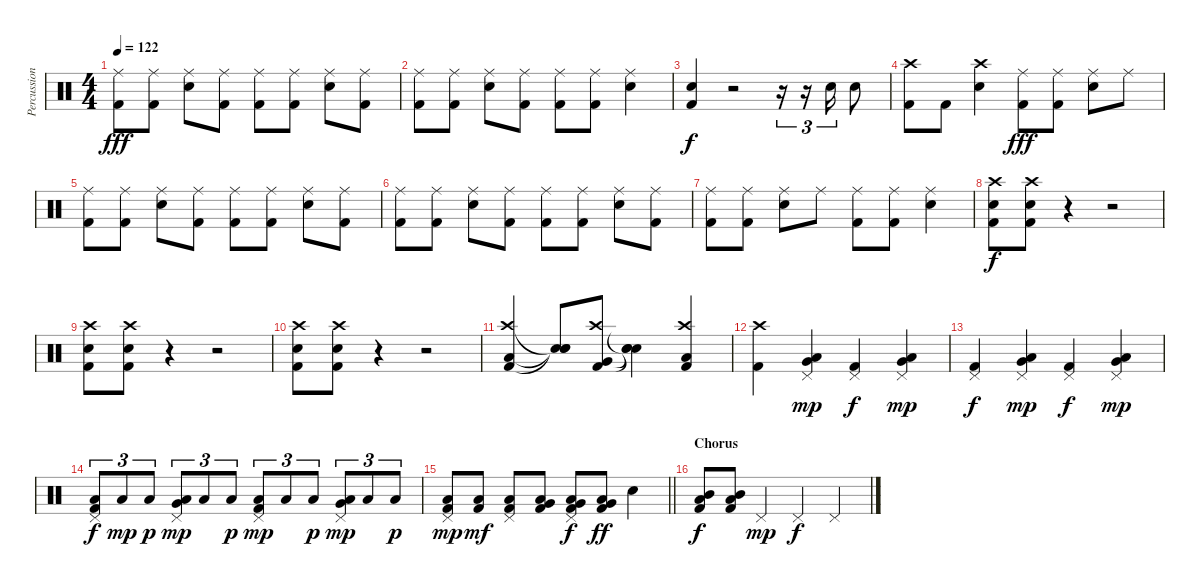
\track ("Percussion (Peter)" "Percussion") {instrument percussion}
\staff {score}
\articulation defaults
\ts (4 4)
\tempo 122
\clef neutral
\ks c
("Ride (middle)" "Kick (hit) 2").8{dy fff} ("Ride (middle)" "Kick (hit) 2").8 ("Ride (middle)" "Snare (hit) 2").8 ("Ride (middle)" "Kick (hit) 2").8 ("Ride (middle)" "Kick (hit) 2").8 ("Ride (middle)" "Kick (hit) 2").8 ("Ride (middle)" "Snare (hit) 2").8 ("Ride (middle)" "Kick (hit) 2").8 |
("Ride (middle)" "Kick (hit) 2").8 ("Ride (middle)" "Kick (hit) 2").8 ("Ride (middle)" "Snare (hit) 2").8 ("Ride (middle)" "Kick (hit) 2").8 ("Ride (middle)" "Kick (hit) 2").8 ("Ride (middle)" "Kick (hit) 2").8 ("Ride (middle)" "Snare (hit) 2").4 |
("Snare (hit) 2" "Kick (hit) 2").4{dy f} r.2 r.16{tu (3 2)} r.16{tu (3 2)} "Snare (hit) 2".16{tu (3 2)} "Snare (hit) 2".8 |
("Crash high (hit)" "Kick (hit) 2").8 "Kick (hit) 2".8 ("Crash high (hit)" "Snare (hit) 2").4 ("Ride (middle)" "Kick (hit) 2").8{dy fff} ("Ride (middle)" "Kick (hit) 2").8 ("Ride (middle)" "Snare (hit) 2").8 "Ride (middle)".8 |
("Ride (middle)" "Kick (hit) 2").8 ("Ride (middle)" "Kick (hit) 2").8 ("Ride (middle)" "Snare (hit) 2").8 ("Ride (middle)" "Kick (hit) 2").8 ("Ride (middle)" "Kick (hit) 2").8 ("Ride (middle)" "Kick (hit) 2").8 ("Ride (middle)" "Snare (hit) 2").8 ("Ride (middle)" "Kick (hit) 2").8 |
("Ride (middle)" "Kick (hit) 2").8 ("Ride (middle)" "Kick (hit) 2").8 ("Ride (middle)" "Snare (hit) 2").8 ("Ride (middle)" "Kick (hit) 2").8 ("Ride (middle)" "Kick (hit) 2").8 ("Ride (middle)" "Kick (hit) 2").8 ("Ride (middle)" "Snare (hit) 2").8 ("Ride (middle)" "Kick (hit) 2").8 |
("Ride (middle)" "Kick (hit) 2").8 ("Ride (middle)" "Kick (hit) 2").8 ("Ride (middle)" "Snare (hit) 2").8 "Ride (middle)".8 ("Ride (middle)" "Kick (hit) 2").8 ("Ride (middle)" "Kick (hit) 2").8 ("Ride (middle)" "Snare (hit) 2").4 |
("Crash high (hit)" "Snare (hit) 2" "Kick (hit) 2").8{dy f} ("Crash high (hit)" "Snare (hit) 2" "Kick (hit) 2").8 r.4 r.2 |
("Crash high (hit)" "Snare (hit) 2" "Kick (hit) 2").8 ("Crash high (hit)" "Snare (hit) 2" "Kick (hit) 2").8 r.4 r.2 |
("Crash high (hit)" "Snare (hit) 2" "Kick (hit) 2").8 ("Crash high (hit)" "Snare (hit) 2" "Kick (hit) 2").8 r.4 r.2 |
("Crash high (hit)" "Low Tom (hit)" "Kick (hit) 2").4 ("Snare (hit)"{t} "Snare (hit)"{t} "Snare (hit)"{t}).8 ("Crash high (hit)" "Very Low Tom (hit)" "Kick (hit) 2").8 ("Snare (hit)"{t} "Snare (hit)"{t} "Snare (hit)"{t}).4 ("Crash high (hit)" "Low Floor Tom (hit)" "Kick (hit) 2").4 |
("Crash high (hit)" "Kick (hit) 2").4 ("Pedal Hi-Hat (hit)" "Low Tom (hit)" "Very Low Tom (hit)").4{dy mp} ("Pedal Hi-Hat (hit)" "Kick (hit) 2").4{dy f} ("Pedal Hi-Hat (hit)" "Low Tom (hit)" "Very Low Tom (hit)").4{dy mp} |
("Pedal Hi-Hat (hit)" "Kick (hit) 2").4{dy f} ("Pedal Hi-Hat (hit)" "Low Tom (hit)" "Very Low Tom (hit)").4{dy mp} ("Pedal Hi-Hat (hit)" "Kick (hit) 2").4{dy f} ("Pedal Hi-Hat (hit)" "Low Tom (hit)" "Very Low Tom (hit)").4{dy mp} |
("Pedal Hi-Hat (hit)" "Low Floor Tom (hit)" "Kick (hit) 2").8{tu (3 2) dy f} "Low Floor Tom (hit)".8{tu (3 2) dy mp} "Low Floor Tom (hit)".8{tu (3 2) dy p} ("Pedal Hi-Hat (hit)" "Low Tom (hit)" "Very Low Tom (hit)").8{tu (3 2) dy mp} "Low Floor Tom (hit)".8{tu (3 2)} "Low Floor Tom (hit)".8{tu (3 2) dy p} ("Pedal Hi-Hat (hit)" "Low Floor Tom (hit)" "Kick (hit) 2").8{tu (3 2) dy mp} "Low Floor Tom (hit)".8{tu (3 2)} "Low Floor Tom (hit)".8{tu (3 2) dy p} ("Pedal Hi-Hat (hit)" "Low Tom (hit)" "Very Low Tom (hit)").8{tu (3 2) dy mp} "Low Floor Tom (hit)".8{tu (3 2)} "Low Floor Tom (hit)".8{tu (3 2) dy p} |
\barLineRight lightlight
("Pedal Hi-Hat (hit)" "Low Tom (hit)" "Kick (hit) 2").8{dy mp} ("Low Tom (hit)" "Kick (hit) 2").8{dy mf} ("Pedal Hi-Hat (hit)" "Low Tom (hit)" "Kick (hit) 2").8 ("Low Tom (hit)" "Very Low Tom (hit)" "Kick (hit) 2").8 ("Pedal Hi-Hat (hit)" "Low Tom (hit)" "Very Low Tom (hit)" "Kick (hit) 2").8{dy f} ("Low Tom (hit)" "Very Low Tom (hit)" "Kick (hit) 2").8{dy ff} "Snare (hit) 2".4 |
\section ("" "Chorus")
("Mid Tom (hit)" "Low Tom (hit)" "Kick (hit) 2").8{dy f} ("Mid Tom (hit)" "Low Tom (hit)" "Kick (hit) 2").8 "Pedal Hi-Hat (hit)".4{dy mp} "Pedal Hi-Hat (hit)".4{dy f} "Pedal Hi-Hat (hit)".4
